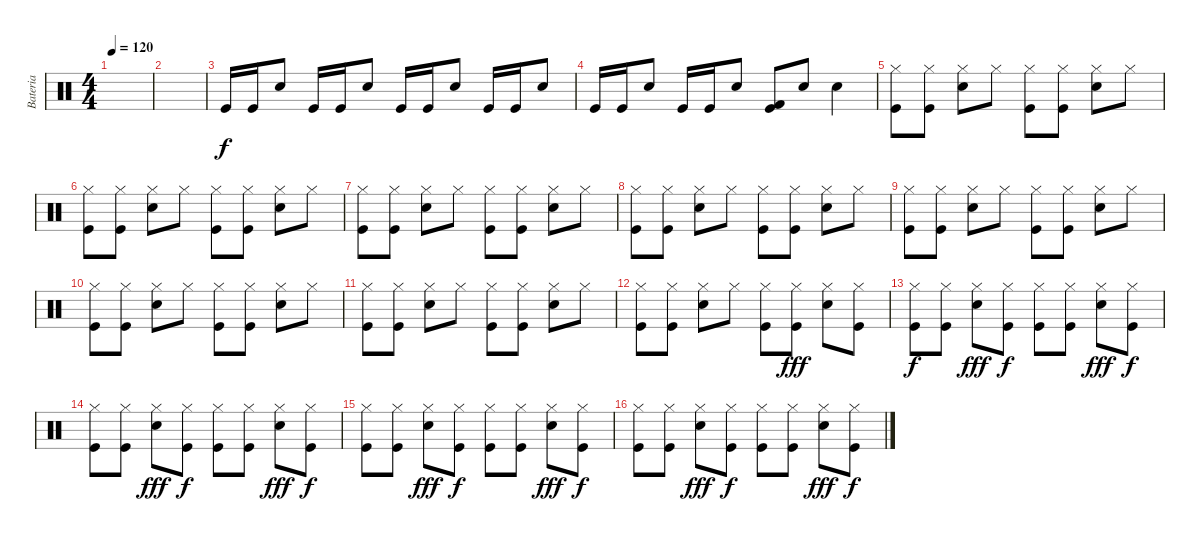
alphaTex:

\track ("Bateria" "Bateria") {instrument percussion}
\staff {score}
\articulation defaults
\ts (4 4)
\tempo 120
\clef neutral
\ks c
|
|
"Kick (hit)".16 "Kick (hit)".16 "Electric Snare (hit)".8 "Kick (hit)".16 "Kick (hit)".16 "Electric Snare (hit)".8 "Kick (hit)".16 "Kick (hit)".16 "Electric Snare (hit)".8 "Kick (hit)".16 "Kick (hit)".16 "Electric Snare (hit)".8 |
"Kick (hit)".16 "Kick (hit)".16 "Electric Snare (hit)".8 "Kick (hit)".16 "Kick (hit)".16 "Electric Snare (hit)".8 ("Kick (hit)" "Kick (hit) 2").8 "Electric Snare (hit)".8 "Electric Snare (hit)".4 |
("Hi-Hat (closed)" "Kick (hit)").8 ("Hi-Hat (closed)" "Kick (hit)").8 ("Hi-Hat (closed)" "Snare (hit) 2").8 "Hi-Hat (closed)".8 ("Hi-Hat (closed)" "Kick (hit)").8 ("Hi-Hat (closed)" "Kick (hit)").8 ("Hi-Hat (closed)" "Snare (hit) 2").8 "Hi-Hat (closed)".8 |
("Hi-Hat (closed)" "Kick (hit)").8 ("Hi-Hat (closed)" "Kick (hit)").8 ("Hi-Hat (closed)" "Snare (hit) 2").8 "Hi-Hat (closed)".8 ("Hi-Hat (closed)" "Kick (hit)").8 ("Hi-Hat (closed)" "Kick (hit)").8 ("Hi-Hat (closed)" "Snare (hit) 2").8 "Hi-Hat (closed)".8 |
("Hi-Hat (closed)" "Kick (hit)").8 ("Hi-Hat (closed)" "Kick (hit)").8 ("Hi-Hat (closed)" "Snare (hit) 2").8 "Hi-Hat (closed)".8 ("Hi-Hat (closed)" "Kick (hit)").8 ("Hi-Hat (closed)" "Kick (hit)").8 ("Hi-Hat (closed)" "Snare (hit) 2").8 "Hi-Hat (closed)".8 |
("Hi-Hat (closed)" "Kick (hit)").8 ("Hi-Hat (closed)" "Kick (hit)").8 ("Hi-Hat (closed)" "Snare (hit) 2").8 "Hi-Hat (closed)".8 ("Hi-Hat (closed)" "Kick (hit)").8 ("Hi-Hat (closed)" "Kick (hit)").8 ("Hi-Hat (closed)" "Snare (hit) 2").8 "Hi-Hat (closed)".8 |
("Hi-Hat (closed)" "Kick (hit)").8 ("Hi-Hat (closed)" "Kick (hit)").8 ("Hi-Hat (closed)" "Snare (hit) 2").8 "Hi-Hat (closed)".8 ("Hi-Hat (closed)" "Kick (hit)").8 ("Hi-Hat (closed)" "Kick (hit)").8 ("Hi-Hat (closed)" "Snare (hit) 2").8 "Hi-Hat (closed)".8 |
("Hi-Hat (closed)" "Kick (hit)").8 ("Hi-Hat (closed)" "Kick (hit)").8 ("Hi-Hat (closed)" "Snare (hit) 2").8 "Hi-Hat (closed)".8 ("Hi-Hat (closed)" "Kick (hit)").8 ("Hi-Hat (closed)" "Kick (hit)").8 ("Hi-Hat (closed)" "Snare (hit) 2").8 "Hi-Hat (closed)".8 |
("Hi-Hat (closed)" "Kick (hit)").8 ("Hi-Hat (closed)" "Kick (hit)").8 ("Hi-Hat (closed)" "Snare (hit) 2").8 "Hi-Hat (closed)".8 ("Hi-Hat (closed)" "Kick (hit)").8 ("Hi-Hat (closed)" "Kick (hit)").8 ("Hi-Hat (closed)" "Snare (hit) 2").8 "Hi-Hat (closed)".8 |
("Hi-Hat (closed)" "Kick (hit)").8 ("Hi-Hat (closed)" "Kick (hit)").8 ("Hi-Hat (closed)" "Snare (hit) 2").8 "Hi-Hat (closed)".8 ("Hi-Hat (closed)" "Kick (hit)").8 ("Hi-Hat (closed)" "Kick (hit)").8{dy fff} ("Hi-Hat (closed)" "Snare (hit) 2").8 ("Hi-Hat (closed)" "Kick (hit)").8 |
("Hi-Hat (closed)" "Kick (hit)").8{dy f} ("Hi-Hat (closed)" "Kick (hit)").8 ("Hi-Hat (closed)" "Snare (hit) 2").8{dy fff} ("Hi-Hat (closed)" "Kick (hit)").8{dy f} ("Hi-Hat (closed)" "Kick (hit)").8 ("Hi-Hat (closed)" "Kick (hit)").8 ("Hi-Hat (closed)" "Snare (hit) 2").8{dy fff} ("Hi-Hat (closed)" "Kick (hit)").8{dy f} |
("Hi-Hat (closed)" "Kick (hit)").8 ("Hi-Hat (closed)" "Kick (hit)").8 ("Hi-Hat (closed)" "Snare (hit) 2").8{dy fff} ("Hi-Hat (closed)" "Kick (hit)").8{dy f} ("Hi-Hat (closed)" "Kick (hit)").8 ("Hi-Hat (closed)" "Kick (hit)").8 ("Hi-Hat (closed)" "Snare (hit) 2").8{dy fff} ("Hi-Hat (closed)" "Kick (hit)").8{dy f} |
("Hi-Hat (closed)" "Kick (hit)").8 ("Hi-Hat (closed)" "Kick (hit)").8 ("Hi-Hat (closed)" "Snare (hit) 2").8{dy fff} ("Hi-Hat (closed)" "Kick (hit)").8{dy f} ("Hi-Hat (closed)" "Kick (hit)").8 ("Hi-Hat (closed)" "Kick (hit)").8 ("Hi-Hat (closed)" "Snare (hit) 2").8{dy fff} ("Hi-Hat (closed)" "Kick (hit)").8{dy f} |
("Hi-Hat (closed)" "Kick (hit)").8 ("Hi-Hat (closed)" "Kick (hit)").8 ("Hi-Hat (closed)" "Snare (hit) 2").8{dy fff} ("Hi-Hat (closed)" "Kick (hit)").8{dy f} ("Hi-Hat (closed)" "Kick (hit)").8 ("Hi-Hat (closed)" "Kick (hit)").8 ("Hi-Hat (closed)" "Snare (hit) 2").8{dy fff} ("Hi-Hat (closed)" "Kick (hit)").8{dy f}
